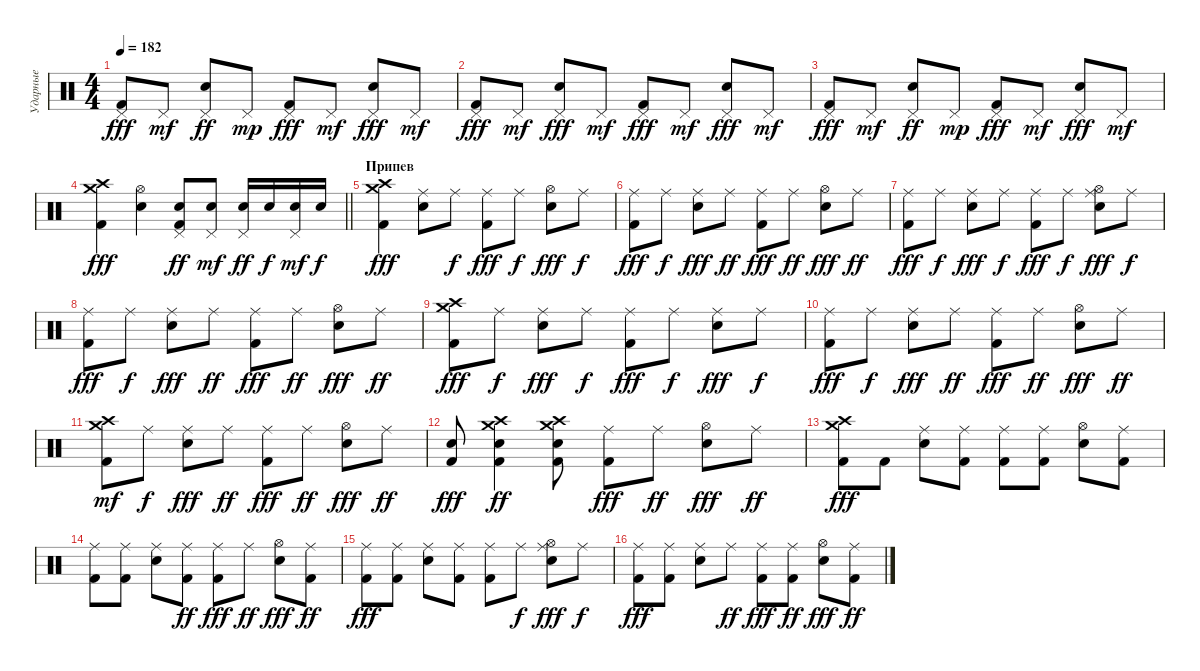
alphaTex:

\track ("Ударные" "Ударные") {instrument percussion}
\staff {score}
\articulation defaults
\ts (4 4)
\tempo 182
\clef neutral
\ks c
("Pedal Hi-Hat (hit)" "Kick (hit) 2").8{dy fff} "Pedal Hi-Hat (hit)".8{dy mf} ("Electric Snare (hit)" "Pedal Hi-Hat (hit)").8{dy ff} "Pedal Hi-Hat (hit)".8{dy mp} ("Pedal Hi-Hat (hit)" "Kick (hit) 2").8{dy fff} "Pedal Hi-Hat (hit)".8{dy mf} ("Pedal Hi-Hat (hit)" "Electric Snare (hit)").8{dy fff} "Pedal Hi-Hat (hit)".8{dy mf} |
("Pedal Hi-Hat (hit)" "Kick (hit) 2").8{dy fff} "Pedal Hi-Hat (hit)".8{dy mf} ("Pedal Hi-Hat (hit)" "Electric Snare (hit)").8{dy fff} "Pedal Hi-Hat (hit)".8{dy mf} ("Pedal Hi-Hat (hit)" "Kick (hit) 2").8{dy fff} "Pedal Hi-Hat (hit)".8{dy mf} ("Pedal Hi-Hat (hit)" "Electric Snare (hit)").8{dy fff} "Pedal Hi-Hat (hit)".8{dy mf} |
("Pedal Hi-Hat (hit)" "Kick (hit) 2").8{dy fff} "Pedal Hi-Hat (hit)".8{dy mf} ("Electric Snare (hit)" "Pedal Hi-Hat (hit)").8{dy ff} "Pedal Hi-Hat (hit)".8{dy mp} ("Pedal Hi-Hat (hit)" "Kick (hit) 2").8{dy fff} "Pedal Hi-Hat (hit)".8{dy mf} ("Pedal Hi-Hat (hit)" "Electric Snare (hit)").8{dy fff} "Pedal Hi-Hat (hit)".8{dy mf} |
\barLineRight lightlight
("Crash medium (hit)" "Crash high (hit)" "Kick (hit) 2").4{dy fff} ("Hi-Hat (open)" "Electric Snare (hit)").4 ("Kick (hit) 2" "Electric Snare (hit)" "Pedal Hi-Hat (hit)").8{dy ff} ("Electric Snare (hit)" "Pedal Hi-Hat (hit)").8{dy mf} ("Electric Snare (hit)" "Pedal Hi-Hat (hit)").16{dy ff} "Electric Snare (hit)".16{dy f} ("Electric Snare (hit)" "Pedal Hi-Hat (hit)").16{dy mf} "Electric Snare (hit)".16{dy f} |
\section ("" "Припев")
("Crash medium (hit)" "Crash high (hit)" "Kick (hit) 2").4{dy fff} ("Ride (middle)" "Electric Snare (hit)").8 "Ride (middle)".8{dy f} ("Ride (middle)" "Kick (hit) 2").8{dy fff} "Ride (middle)".8{dy f} ("Hi-Hat (open)" "Electric Snare (hit)").8{dy fff} "Ride (middle)".8{dy f} |
("Ride (middle)" "Kick (hit) 2").8{dy fff} "Ride (middle)".8{dy f} ("Ride (middle)" "Electric Snare (hit)").8{dy fff} "Ride (middle)".8{dy ff} ("Ride (middle)" "Kick (hit) 2").8{dy fff} "Ride (middle)".8{dy ff} ("Hi-Hat (open)" "Electric Snare (hit)").8{dy fff} "Ride (middle)".8{dy ff} |
("Ride (middle)" "Kick (hit) 2").8{dy fff} "Ride (middle)".8{dy f} ("Ride (middle)" "Electric Snare (hit)").8{dy fff} "Ride (middle)".8{dy f} ("Ride (middle)" "Kick (hit) 2").8{dy fff} "Ride (middle)".8{dy f} ("Hi-Hat (open)" "Ride (middle)" "Electric Snare (hit)").8{dy fff} "Ride (middle)".8{dy f} |
("Ride (middle)" "Kick (hit) 2").8{dy fff} "Ride (middle)".8{dy f} ("Ride (middle)" "Electric Snare (hit)").8{dy fff} "Ride (middle)".8{dy ff} ("Ride (middle)" "Kick (hit) 2").8{dy fff} "Ride (middle)".8{dy ff} ("Hi-Hat (open)" "Electric Snare (hit)").8{dy fff} "Ride (middle)".8{dy ff} |
("Crash medium (hit)" "Crash high (hit)" "Kick (hit) 2").8{dy fff} "Ride (middle)".8{dy f} ("Ride (middle)" "Electric Snare (hit)").8{dy fff} "Ride (middle)".8{dy f} ("Ride (middle)" "Kick (hit) 2").8{dy fff} "Ride (middle)".8{dy f} ("Ride (middle)" "Electric Snare (hit)").8{dy fff} "Ride (middle)".8{dy f} |
("Ride (middle)" "Kick (hit) 2").8{dy fff} "Ride (middle)".8{dy f} ("Ride (middle)" "Electric Snare (hit)").8{dy fff} "Ride (middle)".8{dy ff} ("Ride (middle)" "Kick (hit) 2").8{dy fff} "Ride (middle)".8{dy ff} ("Hi-Hat (open)" "Electric Snare (hit)").8{dy fff} "Ride (middle)".8{dy ff} |
("Crash high (hit)" "Kick (hit) 2" "Crash medium (hit)").8{dy mf} "Ride (middle)".8{dy f} ("Ride (middle)" "Electric Snare (hit)").8{dy fff} "Ride (middle)".8{dy ff} ("Ride (middle)" "Kick (hit) 2").8{dy fff} "Ride (middle)".8{dy ff} ("Hi-Hat (open)" "Electric Snare (hit)").8{dy fff} "Ride (middle)".8{dy ff} |
("Kick (hit) 2" "Electric Snare (hit)").8{dy fff} ("Electric Snare (hit)" "Kick (hit) 2" "Crash medium (hit)" "Crash high (hit)").4{dy ff} ("Kick (hit) 2" "Electric Snare (hit)" "Crash high (hit)" "Crash medium (hit)").8 ("Ride (middle)" "Kick (hit) 2").8{dy fff} "Ride (middle)".8{dy ff} ("Hi-Hat (open)" "Electric Snare (hit)").8{dy fff} "Ride (middle)".8{dy ff} |
("Crash medium (hit)" "Crash high (hit)" "Kick (hit) 2").8{dy fff} "Kick (hit) 2".8 ("Ride (middle)" "Electric Snare (hit)").8 ("Kick (hit) 2" "Ride (middle)").8 ("Ride (middle)" "Kick (hit) 2").8 ("Kick (hit) 2" "Ride (middle)").8 ("Hi-Hat (open)" "Electric Snare (hit)").8 ("Kick (hit) 2" "Ride (middle)").8 |
("Ride (middle)" "Kick (hit) 2").8 ("Kick (hit) 2" "Ride (middle)").8 ("Ride (middle)" "Electric Snare (hit)").8 ("Kick (hit) 2" "Ride (middle)").8{dy ff} ("Ride (middle)" "Kick (hit) 2").8{dy fff} "Ride (middle)".8{dy ff} ("Hi-Hat (open)" "Electric Snare (hit)").8{dy fff} ("Kick (hit) 2" "Ride (middle)").8{dy ff} |
("Ride (middle)" "Kick (hit) 2").8{dy fff} ("Kick (hit) 2" "Ride (middle)").8 ("Ride (middle)" "Electric Snare (hit)").8 ("Kick (hit) 2" "Ride (middle)").8 ("Ride (middle)" "Kick (hit) 2").8 "Ride (middle)".8{dy f} ("Hi-Hat (open)" "Ride (middle)" "Electric Snare (hit)").8{dy fff} "Ride (middle)".8{dy f} |
("Ride (middle)" "Kick (hit) 2").8{dy fff} ("Kick (hit) 2" "Ride (middle)").8 ("Ride (middle)" "Electric Snare (hit)").8 "Ride (middle)".8{dy ff} ("Ride (middle)" "Kick (hit) 2").8{dy fff} ("Kick (hit) 2" "Ride (middle)").8{dy ff} ("Hi-Hat (open)" "Electric Snare (hit)").8{dy fff} ("Kick (hit) 2" "Ride (middle)").8{dy ff}
